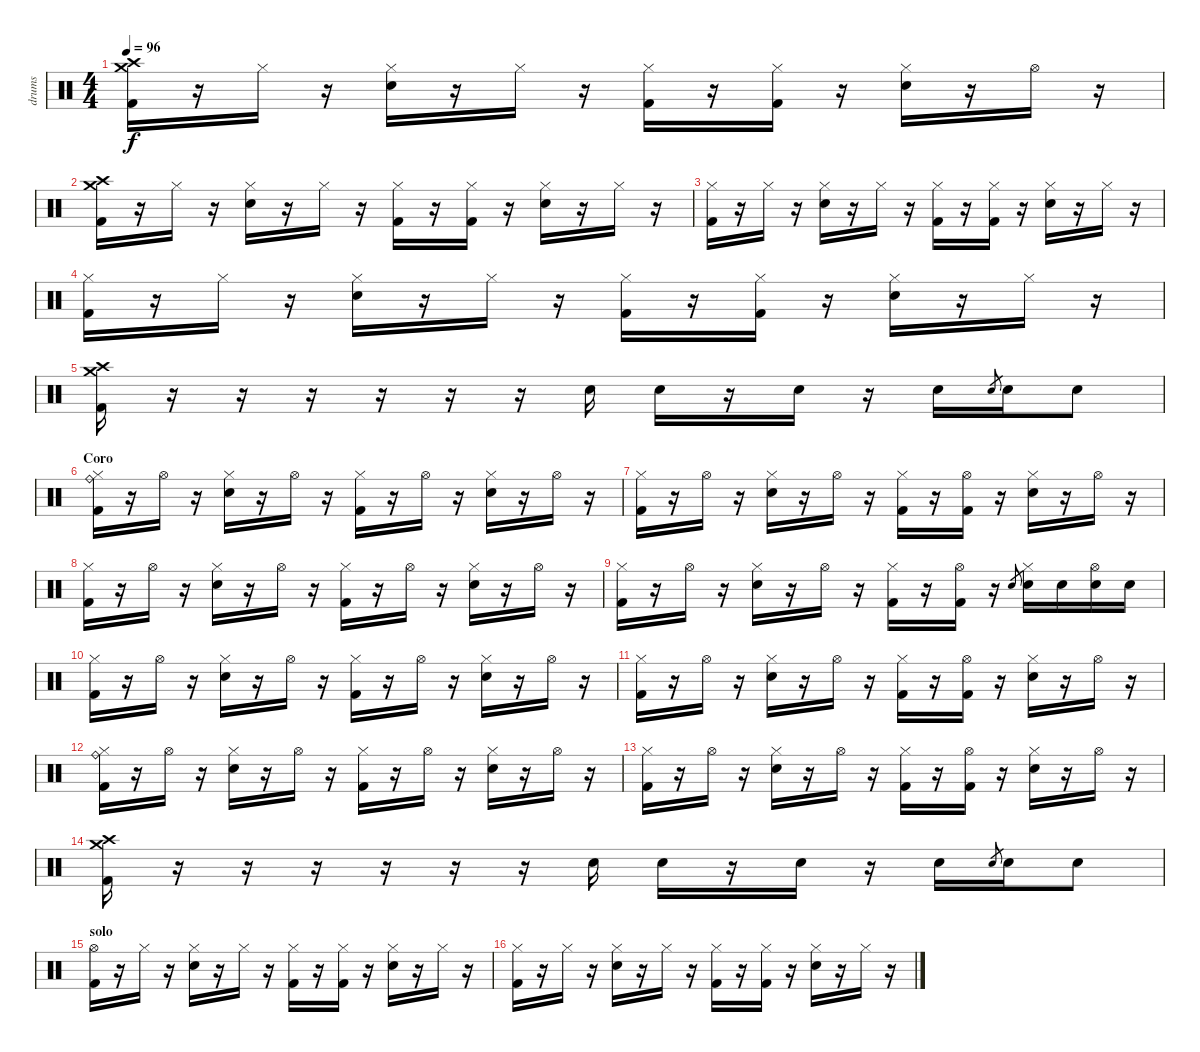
\track ("drums" "drums") {instrument percussion}
\staff {score}
\articulation defaults
\ts (4 4)
\tempo 96
\clef neutral
\ks c
("Kick (hit) 2" "Crash high (hit)" "Crash medium (hit)").16{dy f} r.16 "Hi-Hat (closed)".16 r.16 ("Hi-Hat (closed)" "Electric Snare (hit)").16 r.16 "Hi-Hat (closed)".16 r.16 ("Kick (hit) 2" "Hi-Hat (closed)").16 r.16 ("Kick (hit) 2" "Hi-Hat (closed)").16 r.16 ("Hi-Hat (closed)" "Electric Snare (hit)").16 r.16 "Hi-Hat (open)".16 r.16 |
("Kick (hit) 2" "Crash high (hit)" "Crash medium (hit)").16 r.16 "Hi-Hat (closed)".16 r.16 ("Hi-Hat (closed)" "Electric Snare (hit)").16 r.16 "Hi-Hat (closed)".16 r.16 ("Kick (hit) 2" "Hi-Hat (closed)").16 r.16 ("Kick (hit) 2" "Hi-Hat (closed)").16 r.16 ("Hi-Hat (closed)" "Electric Snare (hit)").16 r.16 "Hi-Hat (closed)".16 r.16 |
("Kick (hit) 2" "Hi-Hat (closed)").16 r.16 "Hi-Hat (closed)".16 r.16 ("Hi-Hat (closed)" "Electric Snare (hit)").16 r.16 "Hi-Hat (closed)".16 r.16 ("Kick (hit) 2" "Hi-Hat (closed)").16 r.16 ("Kick (hit) 2" "Hi-Hat (closed)").16 r.16 ("Hi-Hat (closed)" "Electric Snare (hit)").16 r.16 "Hi-Hat (closed)".16 r.16 |
("Kick (hit) 2" "Hi-Hat (closed)").16 r.16 "Hi-Hat (closed)".16 r.16 ("Hi-Hat (closed)" "Electric Snare (hit)").16 r.16 "Hi-Hat (closed)".16 r.16 ("Kick (hit) 2" "Hi-Hat (closed)").16 r.16 ("Kick (hit) 2" "Hi-Hat (closed)").16 r.16 ("Hi-Hat (closed)" "Electric Snare (hit)").16 r.16 "Hi-Hat (closed)".16 r.16 |
("Kick (hit) 2" "Crash high (hit)" "Crash medium (hit)").16 r.16 r.16 r.16 r.16 r.16 r.16 "Electric Snare (hit)".16 "Electric Snare (hit)".16 r.16 "Electric Snare (hit)".16 r.16 "Electric Snare (hit)".16 "Electric Snare (hit)".8{gr} "Electric Snare (hit)".16 "Electric Snare (hit)".8 |
\section ("" "Coro")
("Kick (hit) 2" "Hi-Hat (closed)" "Ride (bell)").16 r.16 "Hi-Hat (open)".16 r.16 ("Hi-Hat (closed)" "Electric Snare (hit)").16 r.16 "Hi-Hat (open)".16 r.16 ("Kick (hit) 2" "Hi-Hat (closed)").16 r.16 "Hi-Hat (open)".16 r.16 ("Hi-Hat (closed)" "Electric Snare (hit)").16 r.16 "Hi-Hat (open)".16 r.16 |
("Kick (hit) 2" "Hi-Hat (closed)").16 r.16 "Hi-Hat (open)".16 r.16 ("Hi-Hat (closed)" "Electric Snare (hit)").16 r.16 "Hi-Hat (open)".16 r.16 ("Kick (hit) 2" "Hi-Hat (closed)").16 r.16 ("Kick (hit) 2" "Hi-Hat (open)").16 r.16 ("Hi-Hat (closed)" "Electric Snare (hit)").16 r.16 "Hi-Hat (open)".16 r.16 |
("Kick (hit) 2" "Hi-Hat (closed)").16 r.16 "Hi-Hat (open)".16 r.16 ("Hi-Hat (closed)" "Electric Snare (hit)").16 r.16 "Hi-Hat (open)".16 r.16 ("Kick (hit) 2" "Hi-Hat (closed)").16 r.16 "Hi-Hat (open)".16 r.16 ("Hi-Hat (closed)" "Electric Snare (hit)").16 r.16 "Hi-Hat (open)".16 r.16 |
("Kick (hit) 2" "Hi-Hat (closed)").16 r.16 "Hi-Hat (open)".16 r.16 ("Hi-Hat (closed)" "Electric Snare (hit)").16 r.16 "Hi-Hat (open)".16 r.16 ("Kick (hit) 2" "Hi-Hat (closed)").16 r.16 ("Kick (hit) 2" "Hi-Hat (open)").16 r.16 "Electric Snare (hit)".8{gr} ("Hi-Hat (closed)" "Electric Snare (hit)").16 "Electric Snare (hit)".16 ("Hi-Hat (open)" "Electric Snare (hit)").16 "Electric Snare (hit)".16 |
("Kick (hit) 2" "Hi-Hat (closed)").16 r.16 "Hi-Hat (open)".16 r.16 ("Hi-Hat (closed)" "Electric Snare (hit)").16 r.16 "Hi-Hat (open)".16 r.16 ("Kick (hit) 2" "Hi-Hat (closed)").16 r.16 "Hi-Hat (open)".16 r.16 ("Hi-Hat (closed)" "Electric Snare (hit)").16 r.16 "Hi-Hat (open)".16 r.16 |
("Kick (hit) 2" "Hi-Hat (closed)").16 r.16 "Hi-Hat (open)".16 r.16 ("Hi-Hat (closed)" "Electric Snare (hit)").16 r.16 "Hi-Hat (open)".16 r.16 ("Kick (hit) 2" "Hi-Hat (closed)").16 r.16 ("Kick (hit) 2" "Hi-Hat (open)").16 r.16 ("Hi-Hat (closed)" "Electric Snare (hit)").16 r.16 "Hi-Hat (open)".16 r.16 |
("Kick (hit) 2" "Hi-Hat (closed)" "Ride (bell)").16 r.16 "Hi-Hat (open)".16 r.16 ("Hi-Hat (closed)" "Electric Snare (hit)").16 r.16 "Hi-Hat (open)".16 r.16 ("Kick (hit) 2" "Hi-Hat (closed)").16 r.16 "Hi-Hat (open)".16 r.16 ("Hi-Hat (closed)" "Electric Snare (hit)").16 r.16 "Hi-Hat (open)".16 r.16 |
("Kick (hit) 2" "Hi-Hat (closed)").16 r.16 "Hi-Hat (open)".16 r.16 ("Hi-Hat (closed)" "Electric Snare (hit)").16 r.16 "Hi-Hat (open)".16 r.16 ("Kick (hit) 2" "Hi-Hat (closed)").16 r.16 ("Kick (hit) 2" "Hi-Hat (open)").16 r.16 ("Hi-Hat (closed)" "Electric Snare (hit)").16 r.16 "Hi-Hat (open)".16 r.16 |
("Kick (hit) 2" "Crash high (hit)" "Crash medium (hit)").16 r.16 r.16 r.16 r.16 r.16 r.16 "Electric Snare (hit)".16 "Electric Snare (hit)".16 r.16 "Electric Snare (hit)".16 r.16 "Electric Snare (hit)".16 "Electric Snare (hit)".8{gr} "Electric Snare (hit)".16 "Electric Snare (hit)".8 |
\section ("" "solo")
("Kick (hit) 2" "Hi-Hat (open)").16 r.16 "Hi-Hat (closed)".16 r.16 ("Hi-Hat (closed)" "Electric Snare (hit)").16 r.16 "Hi-Hat (closed)".16 r.16 ("Kick (hit) 2" "Hi-Hat (closed)").16 r.16 ("Kick (hit) 2" "Hi-Hat (closed)").16 r.16 ("Hi-Hat (closed)" "Electric Snare (hit)").16 r.16 "Hi-Hat (closed)".16 r.16 |
("Kick (hit) 2" "Hi-Hat (closed)").16 r.16 "Hi-Hat (closed)".16 r.16 ("Hi-Hat (closed)" "Electric Snare (hit)").16 r.16 "Hi-Hat (closed)".16 r.16 ("Kick (hit) 2" "Hi-Hat (closed)").16 r.16 ("Kick (hit) 2" "Hi-Hat (closed)").16 r.16 ("Hi-Hat (closed)" "Electric Snare (hit)").16 r.16 "Hi-Hat (closed)".16 r.16
